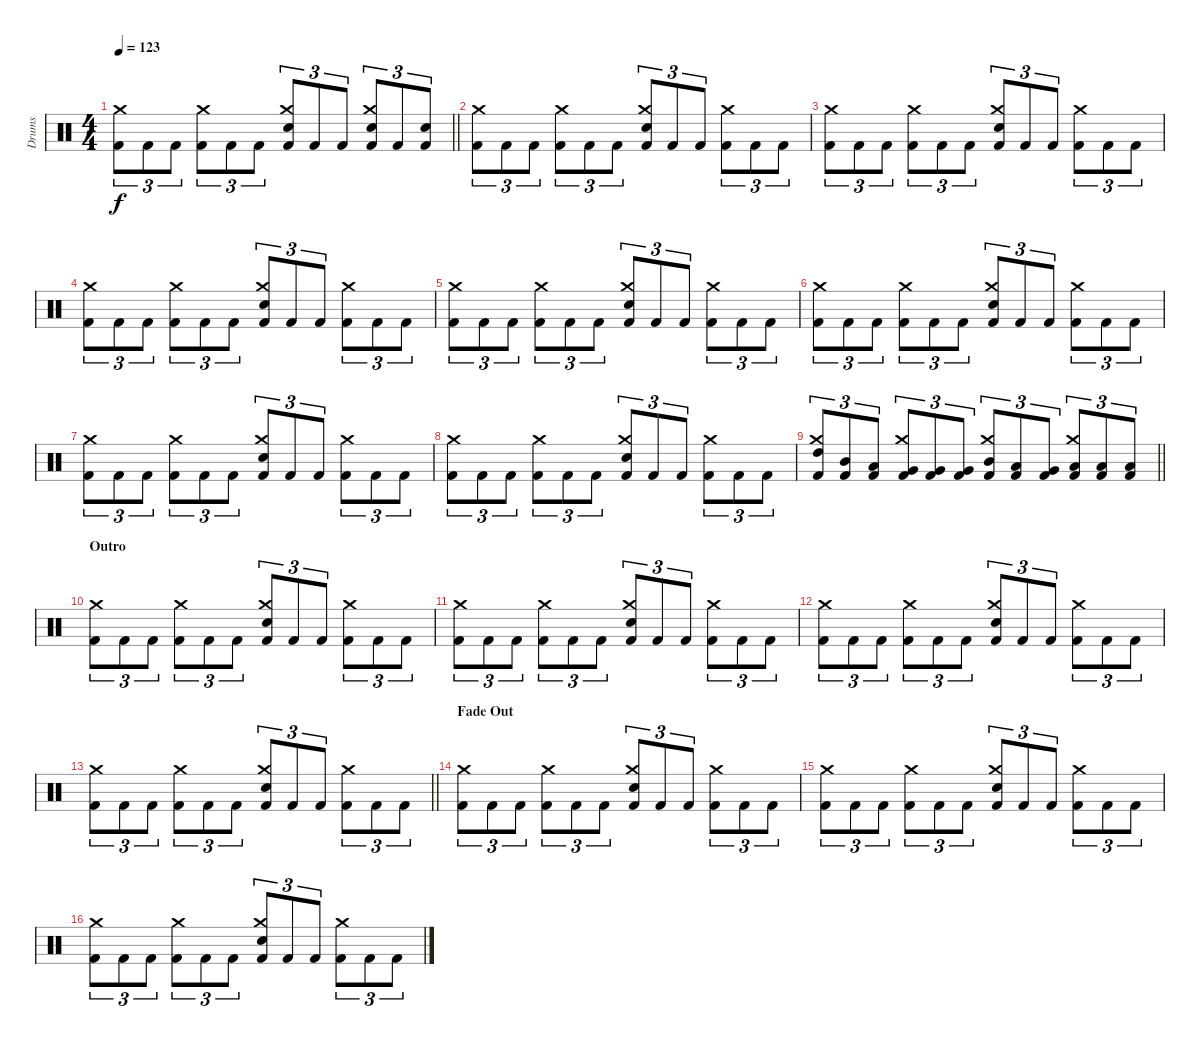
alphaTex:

\track ("Drums" "Drums") {instrument percussion}
\staff {score}
\articulation defaults
\ts (4 4)
\tempo 123
\clef neutral
\barLineRight lightlight
\ks c
("Kick (hit) 2" "Crash medium (hit)").8{tu (3 2) dy f} "Kick (hit) 2".8{tu (3 2)} "Kick (hit) 2".8{tu (3 2)} ("Kick (hit) 2" "Crash medium (hit)").8{tu (3 2)} "Kick (hit) 2".8{tu (3 2)} "Kick (hit) 2".8{tu (3 2)} ("Kick (hit) 2" "Snare (hit) 2" "Crash medium (hit)").8{tu (3 2)} "Kick (hit) 2".8{tu (3 2)} "Kick (hit) 2".8{tu (3 2)} ("Kick (hit) 2" "Snare (hit) 2" "Crash medium (hit)").8{tu (3 2)} "Kick (hit) 2".8{tu (3 2)} ("Kick (hit) 2" "Snare (hit) 2").8{tu (3 2)} |
\section ("" "")
("Kick (hit) 2" "Crash medium (hit)").8{tu (3 2)} "Kick (hit) 2".8{tu (3 2)} "Kick (hit) 2".8{tu (3 2)} ("Kick (hit) 2" "Crash medium (hit)").8{tu (3 2)} "Kick (hit) 2".8{tu (3 2)} "Kick (hit) 2".8{tu (3 2)} ("Kick (hit) 2" "Snare (hit) 2" "Crash medium (hit)").8{tu (3 2)} "Kick (hit) 2".8{tu (3 2)} "Kick (hit) 2".8{tu (3 2)} ("Kick (hit) 2" "Crash medium (hit)").8{tu (3 2)} "Kick (hit) 2".8{tu (3 2)} "Kick (hit) 2".8{tu (3 2)} |
("Kick (hit) 2" "Crash medium (hit)").8{tu (3 2)} "Kick (hit) 2".8{tu (3 2)} "Kick (hit) 2".8{tu (3 2)} ("Kick (hit) 2" "Crash medium (hit)").8{tu (3 2)} "Kick (hit) 2".8{tu (3 2)} "Kick (hit) 2".8{tu (3 2)} ("Kick (hit) 2" "Snare (hit) 2" "Crash medium (hit)").8{tu (3 2)} "Kick (hit) 2".8{tu (3 2)} "Kick (hit) 2".8{tu (3 2)} ("Kick (hit) 2" "Crash medium (hit)").8{tu (3 2)} "Kick (hit) 2".8{tu (3 2)} "Kick (hit) 2".8{tu (3 2)} |
("Kick (hit) 2" "Crash medium (hit)").8{tu (3 2)} "Kick (hit) 2".8{tu (3 2)} "Kick (hit) 2".8{tu (3 2)} ("Kick (hit) 2" "Crash medium (hit)").8{tu (3 2)} "Kick (hit) 2".8{tu (3 2)} "Kick (hit) 2".8{tu (3 2)} ("Kick (hit) 2" "Snare (hit) 2" "Crash medium (hit)").8{tu (3 2)} "Kick (hit) 2".8{tu (3 2)} "Kick (hit) 2".8{tu (3 2)} ("Kick (hit) 2" "Crash medium (hit)").8{tu (3 2)} "Kick (hit) 2".8{tu (3 2)} "Kick (hit) 2".8{tu (3 2)} |
("Kick (hit) 2" "Crash medium (hit)").8{tu (3 2)} "Kick (hit) 2".8{tu (3 2)} "Kick (hit) 2".8{tu (3 2)} ("Kick (hit) 2" "Crash medium (hit)").8{tu (3 2)} "Kick (hit) 2".8{tu (3 2)} "Kick (hit) 2".8{tu (3 2)} ("Kick (hit) 2" "Snare (hit) 2" "Crash medium (hit)").8{tu (3 2)} "Kick (hit) 2".8{tu (3 2)} "Kick (hit) 2".8{tu (3 2)} ("Kick (hit) 2" "Crash medium (hit)").8{tu (3 2)} "Kick (hit) 2".8{tu (3 2)} "Kick (hit) 2".8{tu (3 2)} |
("Kick (hit) 2" "Crash medium (hit)").8{tu (3 2)} "Kick (hit) 2".8{tu (3 2)} "Kick (hit) 2".8{tu (3 2)} ("Kick (hit) 2" "Crash medium (hit)").8{tu (3 2)} "Kick (hit) 2".8{tu (3 2)} "Kick (hit) 2".8{tu (3 2)} ("Kick (hit) 2" "Snare (hit) 2" "Crash medium (hit)").8{tu (3 2)} "Kick (hit) 2".8{tu (3 2)} "Kick (hit) 2".8{tu (3 2)} ("Kick (hit) 2" "Crash medium (hit)").8{tu (3 2)} "Kick (hit) 2".8{tu (3 2)} "Kick (hit) 2".8{tu (3 2)} |
("Kick (hit) 2" "Crash medium (hit)").8{tu (3 2)} "Kick (hit) 2".8{tu (3 2)} "Kick (hit) 2".8{tu (3 2)} ("Kick (hit) 2" "Crash medium (hit)").8{tu (3 2)} "Kick (hit) 2".8{tu (3 2)} "Kick (hit) 2".8{tu (3 2)} ("Kick (hit) 2" "Snare (hit) 2" "Crash medium (hit)").8{tu (3 2)} "Kick (hit) 2".8{tu (3 2)} "Kick (hit) 2".8{tu (3 2)} ("Kick (hit) 2" "Crash medium (hit)").8{tu (3 2)} "Kick (hit) 2".8{tu (3 2)} "Kick (hit) 2".8{tu (3 2)} |
("Kick (hit) 2" "Crash medium (hit)").8{tu (3 2)} "Kick (hit) 2".8{tu (3 2)} "Kick (hit) 2".8{tu (3 2)} ("Kick (hit) 2" "Crash medium (hit)").8{tu (3 2)} "Kick (hit) 2".8{tu (3 2)} "Kick (hit) 2".8{tu (3 2)} ("Kick (hit) 2" "Snare (hit) 2" "Crash medium (hit)").8{tu (3 2)} "Kick (hit) 2".8{tu (3 2)} "Kick (hit) 2".8{tu (3 2)} ("Kick (hit) 2" "Crash medium (hit)").8{tu (3 2)} "Kick (hit) 2".8{tu (3 2)} "Kick (hit) 2".8{tu (3 2)} |
\barLineRight lightlight
("Kick (hit) 2" "High Tom (hit)" "Crash medium (hit)").8{tu (3 2)} ("Kick (hit) 2" "Mid Tom (hit)").8{tu (3 2)} ("Kick (hit) 2" "Low Tom (hit)").8{tu (3 2)} ("Kick (hit) 2" "Very Low Tom (hit)" "Crash medium (hit)").8{tu (3 2)} ("Kick (hit) 2" "Very Low Tom (hit)").8{tu (3 2)} ("Kick (hit) 2" "Very Low Tom (hit)").8{tu (3 2)} ("Kick (hit) 2" "Mid Tom (hit)" "Crash medium (hit)").8{tu (3 2)} ("Kick (hit) 2" "Low Tom (hit)").8{tu (3 2)} ("Kick (hit) 2" "Very Low Tom (hit)").8{tu (3 2)} ("Kick (hit) 2" "Low Floor Tom (hit)" "Crash medium (hit)").8{tu (3 2)} ("Kick (hit) 2" "Low Floor Tom (hit)").8{tu (3 2)} ("Kick (hit) 2" "Low Floor Tom (hit)").8{tu (3 2)} |
\section ("" "Outro")
("Kick (hit) 2" "Crash medium (hit)").8{tu (3 2)} "Kick (hit) 2".8{tu (3 2)} "Kick (hit) 2".8{tu (3 2)} ("Kick (hit) 2" "Crash medium (hit)").8{tu (3 2)} "Kick (hit) 2".8{tu (3 2)} "Kick (hit) 2".8{tu (3 2)} ("Kick (hit) 2" "Snare (hit) 2" "Crash medium (hit)").8{tu (3 2)} "Kick (hit) 2".8{tu (3 2)} "Kick (hit) 2".8{tu (3 2)} ("Kick (hit) 2" "Crash medium (hit)").8{tu (3 2)} "Kick (hit) 2".8{tu (3 2)} "Kick (hit) 2".8{tu (3 2)} |
("Kick (hit) 2" "Crash medium (hit)").8{tu (3 2)} "Kick (hit) 2".8{tu (3 2)} "Kick (hit) 2".8{tu (3 2)} ("Kick (hit) 2" "Crash medium (hit)").8{tu (3 2)} "Kick (hit) 2".8{tu (3 2)} "Kick (hit) 2".8{tu (3 2)} ("Kick (hit) 2" "Snare (hit) 2" "Crash medium (hit)").8{tu (3 2)} "Kick (hit) 2".8{tu (3 2)} "Kick (hit) 2".8{tu (3 2)} ("Kick (hit) 2" "Crash medium (hit)").8{tu (3 2)} "Kick (hit) 2".8{tu (3 2)} "Kick (hit) 2".8{tu (3 2)} |
("Kick (hit) 2" "Crash medium (hit)").8{tu (3 2)} "Kick (hit) 2".8{tu (3 2)} "Kick (hit) 2".8{tu (3 2)} ("Kick (hit) 2" "Crash medium (hit)").8{tu (3 2)} "Kick (hit) 2".8{tu (3 2)} "Kick (hit) 2".8{tu (3 2)} ("Kick (hit) 2" "Snare (hit) 2" "Crash medium (hit)").8{tu (3 2)} "Kick (hit) 2".8{tu (3 2)} "Kick (hit) 2".8{tu (3 2)} ("Kick (hit) 2" "Crash medium (hit)").8{tu (3 2)} "Kick (hit) 2".8{tu (3 2)} "Kick (hit) 2".8{tu (3 2)} |
\barLineRight lightlight
("Kick (hit) 2" "Crash medium (hit)").8{tu (3 2)} "Kick (hit) 2".8{tu (3 2)} "Kick (hit) 2".8{tu (3 2)} ("Kick (hit) 2" "Crash medium (hit)").8{tu (3 2)} "Kick (hit) 2".8{tu (3 2)} "Kick (hit) 2".8{tu (3 2)} ("Kick (hit) 2" "Snare (hit) 2" "Crash medium (hit)").8{tu (3 2)} "Kick (hit) 2".8{tu (3 2)} "Kick (hit) 2".8{tu (3 2)} ("Kick (hit) 2" "Crash medium (hit)").8{tu (3 2)} "Kick (hit) 2".8{tu (3 2)} "Kick (hit) 2".8{tu (3 2)} |
\section ("" "Fade Out")
("Kick (hit) 2" "Crash medium (hit)").8{tu (3 2) volume 9} "Kick (hit) 2".8{tu (3 2)} "Kick (hit) 2".8{tu (3 2)} ("Kick (hit) 2" "Crash medium (hit)").8{tu (3 2)} "Kick (hit) 2".8{tu (3 2)} "Kick (hit) 2".8{tu (3 2)} ("Kick (hit) 2" "Snare (hit) 2" "Crash medium (hit)").8{tu (3 2)} "Kick (hit) 2".8{tu (3 2)} "Kick (hit) 2".8{tu (3 2)} ("Kick (hit) 2" "Crash medium (hit)").8{tu (3 2)} "Kick (hit) 2".8{tu (3 2)} "Kick (hit) 2".8{tu (3 2)} |
("Kick (hit) 2" "Crash medium (hit)").8{tu (3 2)} "Kick (hit) 2".8{tu (3 2)} "Kick (hit) 2".8{tu (3 2)} ("Kick (hit) 2" "Crash medium (hit)").8{tu (3 2)} "Kick (hit) 2".8{tu (3 2)} "Kick (hit) 2".8{tu (3 2)} ("Kick (hit) 2" "Snare (hit) 2" "Crash medium (hit)").8{tu (3 2)} "Kick (hit) 2".8{tu (3 2)} "Kick (hit) 2".8{tu (3 2)} ("Kick (hit) 2" "Crash medium (hit)").8{tu (3 2)} "Kick (hit) 2".8{tu (3 2)} "Kick (hit) 2".8{tu (3 2)} |
("Kick (hit) 2" "Crash medium (hit)").8{tu (3 2)} "Kick (hit) 2".8{tu (3 2)} "Kick (hit) 2".8{tu (3 2)} ("Kick (hit) 2" "Crash medium (hit)").8{tu (3 2)} "Kick (hit) 2".8{tu (3 2)} "Kick (hit) 2".8{tu (3 2)} ("Kick (hit) 2" "Snare (hit) 2" "Crash medium (hit)").8{tu (3 2)} "Kick (hit) 2".8{tu (3 2)} "Kick (hit) 2".8{tu (3 2)} ("Kick (hit) 2" "Crash medium (hit)").8{tu (3 2)} "Kick (hit) 2".8{tu (3 2)} "Kick (hit) 2".8{tu (3 2)}
